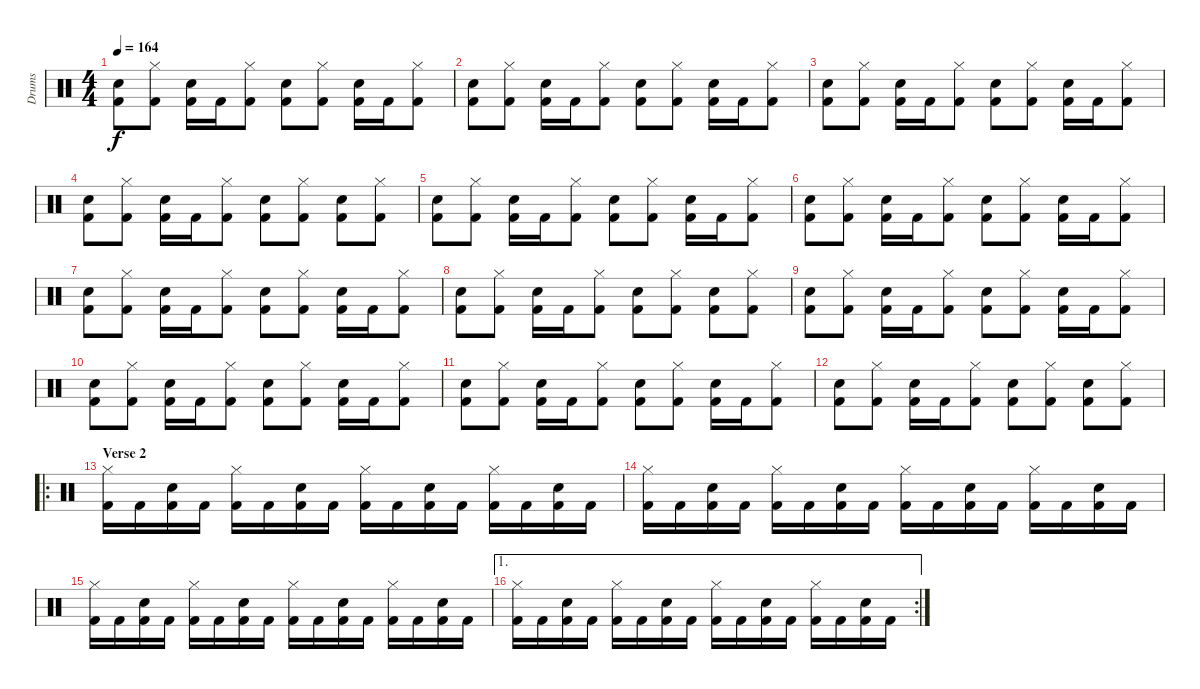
\track ("Drums" "Drums") {instrument percussion}
\staff {score}
\articulation defaults
\ts (4 4)
\tempo 164
\clef neutral
\ks c
("Snare (hit) 2" "Kick (hit) 2").8{dy f} ("Hi-Hat (closed)" "Kick (hit) 2").8 ("Snare (hit) 2" "Kick (hit) 2").16 "Kick (hit) 2".16 ("Hi-Hat (closed)" "Kick (hit) 2").8 ("Snare (hit) 2" "Kick (hit) 2").8 ("Hi-Hat (closed)" "Kick (hit) 2").8 ("Snare (hit) 2" "Kick (hit) 2").16 "Kick (hit) 2".16 ("Hi-Hat (closed)" "Kick (hit) 2").8 |
("Snare (hit) 2" "Kick (hit) 2").8 ("Hi-Hat (closed)" "Kick (hit) 2").8 ("Snare (hit) 2" "Kick (hit) 2").16 "Kick (hit) 2".16 ("Hi-Hat (closed)" "Kick (hit) 2").8 ("Snare (hit) 2" "Kick (hit) 2").8 ("Hi-Hat (closed)" "Kick (hit) 2").8 ("Snare (hit) 2" "Kick (hit) 2").16 "Kick (hit) 2".16 ("Hi-Hat (closed)" "Kick (hit) 2").8 |
("Snare (hit) 2" "Kick (hit) 2").8 ("Hi-Hat (closed)" "Kick (hit) 2").8 ("Snare (hit) 2" "Kick (hit) 2").16 "Kick (hit) 2".16 ("Hi-Hat (closed)" "Kick (hit) 2").8 ("Snare (hit) 2" "Kick (hit) 2").8 ("Hi-Hat (closed)" "Kick (hit) 2").8 ("Snare (hit) 2" "Kick (hit) 2").16 "Kick (hit) 2".16 ("Hi-Hat (closed)" "Kick (hit) 2").8 |
("Snare (hit) 2" "Kick (hit) 2").8 ("Hi-Hat (closed)" "Kick (hit) 2").8 ("Snare (hit) 2" "Kick (hit) 2").16 "Kick (hit) 2".16 ("Hi-Hat (closed)" "Kick (hit) 2").8 ("Snare (hit) 2" "Kick (hit) 2").8 ("Hi-Hat (closed)" "Kick (hit) 2").8 ("Snare (hit) 2" "Kick (hit) 2").8 ("Hi-Hat (closed)" "Kick (hit) 2").8 |
("Snare (hit) 2" "Kick (hit) 2").8 ("Hi-Hat (closed)" "Kick (hit) 2").8 ("Snare (hit) 2" "Kick (hit) 2").16 "Kick (hit) 2".16 ("Hi-Hat (closed)" "Kick (hit) 2").8 ("Snare (hit) 2" "Kick (hit) 2").8 ("Hi-Hat (closed)" "Kick (hit) 2").8 ("Snare (hit) 2" "Kick (hit) 2").16 "Kick (hit) 2".16 ("Hi-Hat (closed)" "Kick (hit) 2").8 |
("Snare (hit) 2" "Kick (hit) 2").8 ("Hi-Hat (closed)" "Kick (hit) 2").8 ("Snare (hit) 2" "Kick (hit) 2").16 "Kick (hit) 2".16 ("Hi-Hat (closed)" "Kick (hit) 2").8 ("Snare (hit) 2" "Kick (hit) 2").8 ("Hi-Hat (closed)" "Kick (hit) 2").8 ("Snare (hit) 2" "Kick (hit) 2").16 "Kick (hit) 2".16 ("Hi-Hat (closed)" "Kick (hit) 2").8 |
("Snare (hit) 2" "Kick (hit) 2").8 ("Hi-Hat (closed)" "Kick (hit) 2").8 ("Snare (hit) 2" "Kick (hit) 2").16 "Kick (hit) 2".16 ("Hi-Hat (closed)" "Kick (hit) 2").8 ("Snare (hit) 2" "Kick (hit) 2").8 ("Hi-Hat (closed)" "Kick (hit) 2").8 ("Snare (hit) 2" "Kick (hit) 2").16 "Kick (hit) 2".16 ("Hi-Hat (closed)" "Kick (hit) 2").8 |
("Snare (hit) 2" "Kick (hit) 2").8 ("Hi-Hat (closed)" "Kick (hit) 2").8 ("Snare (hit) 2" "Kick (hit) 2").16 "Kick (hit) 2".16 ("Hi-Hat (closed)" "Kick (hit) 2").8 ("Snare (hit) 2" "Kick (hit) 2").8 ("Hi-Hat (closed)" "Kick (hit) 2").8 ("Snare (hit) 2" "Kick (hit) 2").8 ("Hi-Hat (closed)" "Kick (hit) 2").8 |
("Snare (hit) 2" "Kick (hit) 2").8 ("Hi-Hat (closed)" "Kick (hit) 2").8 ("Snare (hit) 2" "Kick (hit) 2").16 "Kick (hit) 2".16 ("Hi-Hat (closed)" "Kick (hit) 2").8 ("Snare (hit) 2" "Kick (hit) 2").8 ("Hi-Hat (closed)" "Kick (hit) 2").8 ("Snare (hit) 2" "Kick (hit) 2").16 "Kick (hit) 2".16 ("Hi-Hat (closed)" "Kick (hit) 2").8 |
("Snare (hit) 2" "Kick (hit) 2").8 ("Hi-Hat (closed)" "Kick (hit) 2").8 ("Snare (hit) 2" "Kick (hit) 2").16 "Kick (hit) 2".16 ("Hi-Hat (closed)" "Kick (hit) 2").8 ("Snare (hit) 2" "Kick (hit) 2").8 ("Hi-Hat (closed)" "Kick (hit) 2").8 ("Snare (hit) 2" "Kick (hit) 2").16 "Kick (hit) 2".16 ("Hi-Hat (closed)" "Kick (hit) 2").8 |
("Snare (hit) 2" "Kick (hit) 2").8 ("Hi-Hat (closed)" "Kick (hit) 2").8 ("Snare (hit) 2" "Kick (hit) 2").16 "Kick (hit) 2".16 ("Hi-Hat (closed)" "Kick (hit) 2").8 ("Snare (hit) 2" "Kick (hit) 2").8 ("Hi-Hat (closed)" "Kick (hit) 2").8 ("Snare (hit) 2" "Kick (hit) 2").16 "Kick (hit) 2".16 ("Hi-Hat (closed)" "Kick (hit) 2").8 |
("Snare (hit) 2" "Kick (hit) 2").8 ("Hi-Hat (closed)" "Kick (hit) 2").8 ("Snare (hit) 2" "Kick (hit) 2").16 "Kick (hit) 2".16 ("Hi-Hat (closed)" "Kick (hit) 2").8 ("Snare (hit) 2" "Kick (hit) 2").8 ("Hi-Hat (closed)" "Kick (hit) 2").8 ("Snare (hit) 2" "Kick (hit) 2").8 ("Hi-Hat (closed)" "Kick (hit) 2").8 |
\ro
\section ("" "Verse 2")
("Hi-Hat (closed)" "Kick (hit) 2").16 "Kick (hit) 2".16 ("Snare (hit) 2" "Kick (hit) 2").16 "Kick (hit) 2".16 ("Hi-Hat (closed)" "Kick (hit) 2").16 "Kick (hit) 2".16 ("Snare (hit) 2" "Kick (hit) 2").16 "Kick (hit) 2".16 ("Hi-Hat (closed)" "Kick (hit) 2").16 "Kick (hit) 2".16 ("Snare (hit) 2" "Kick (hit) 2").16 "Kick (hit) 2".16 ("Hi-Hat (closed)" "Kick (hit) 2").16 "Kick (hit) 2".16 ("Snare (hit) 2" "Kick (hit) 2").16 "Kick (hit) 2".16 |
("Hi-Hat (closed)" "Kick (hit) 2").16 "Kick (hit) 2".16 ("Snare (hit) 2" "Kick (hit) 2").16 "Kick (hit) 2".16 ("Hi-Hat (closed)" "Kick (hit) 2").16 "Kick (hit) 2".16 ("Snare (hit) 2" "Kick (hit) 2").16 "Kick (hit) 2".16 ("Hi-Hat (closed)" "Kick (hit) 2").16 "Kick (hit) 2".16 ("Snare (hit) 2" "Kick (hit) 2").16 "Kick (hit) 2".16 ("Hi-Hat (closed)" "Kick (hit) 2").16 "Kick (hit) 2".16 ("Snare (hit) 2" "Kick (hit) 2").16 "Kick (hit) 2".16 |
("Hi-Hat (closed)" "Kick (hit) 2").16 "Kick (hit) 2".16 ("Snare (hit) 2" "Kick (hit) 2").16 "Kick (hit) 2".16 ("Hi-Hat (closed)" "Kick (hit) 2").16 "Kick (hit) 2".16 ("Snare (hit) 2" "Kick (hit) 2").16 "Kick (hit) 2".16 ("Hi-Hat (closed)" "Kick (hit) 2").16 "Kick (hit) 2".16 ("Snare (hit) 2" "Kick (hit) 2").16 "Kick (hit) 2".16 ("Hi-Hat (closed)" "Kick (hit) 2").16 "Kick (hit) 2".16 ("Snare (hit) 2" "Kick (hit) 2").16 "Kick (hit) 2".16 |
\ae 1
\rc 2
("Hi-Hat (closed)" "Kick (hit) 2").16 "Kick (hit) 2".16 ("Snare (hit) 2" "Kick (hit) 2").16 "Kick (hit) 2".16 ("Hi-Hat (closed)" "Kick (hit) 2").16 "Kick (hit) 2".16 ("Snare (hit) 2" "Kick (hit) 2").16 "Kick (hit) 2".16 ("Hi-Hat (closed)" "Kick (hit) 2").16 "Kick (hit) 2".16 ("Snare (hit) 2" "Kick (hit) 2").16 "Kick (hit) 2".16 ("Hi-Hat (closed)" "Kick (hit) 2").16 "Kick (hit) 2".16 ("Snare (hit) 2" "Kick (hit) 2").16 "Kick (hit) 2".16
